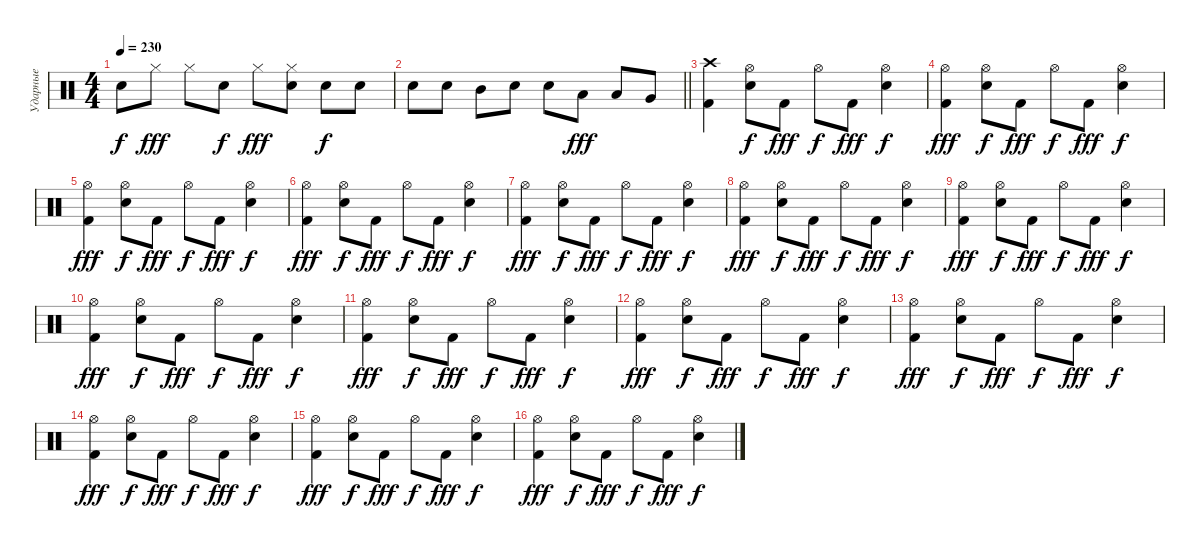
\track ("Ударные" "Ударные") {instrument percussion}
\staff
\articulation defaults
\ts (4 4)
\tempo 230
\clef neutral
\ks c "Snare (hit) 2".8{dy f} "Hi-Hat (closed)".8{dy fff} "Hi-Hat (closed)".8 "Snare (hit) 2".8{dy f} "Hi-Hat (closed)".8{dy fff}
("Snare (hit) 2" "Hi-Hat (closed)").8 "Snare (hit) 2".8{dy f} "Snare (hit) 2".8 |
\barLineRight lightlight "Snare (hit) 2".8 "Snare (hit) 2".8 "Mid Tom (hit)".8 "Snare (hit) 2".8 "Snare (hit) 2".8 "Low Tom (hit)".8{dy fff} "Low Tom (hit)".8 "Very Low Tom (hit)".8
|
("Kick (hit) 2" "Crash high (hit)").4 ("Snare (hit) 2" "Hi-Hat (open)").8{dy f} "Kick (hit) 2".8{dy fff} "Hi-Hat (open)".8{dy f} "Kick (hit) 2".8{dy fff} ("Snare (hit) 2" "Hi-Hat (open)").4{dy f} |
("Kick (hit) 2" "Hi-Hat (open)").4{dy fff} ("Snare (hit) 2" "Hi-Hat (open)").8{dy f} "Kick (hit) 2".8{dy fff} "Hi-Hat (open)".8{dy f} "Kick (hit) 2".8{dy fff} ("Snare (hit) 2" "Hi-Hat (open)").4{dy f} |
("Kick (hit) 2" "Hi-Hat (open)").4{dy fff} ("Snare (hit) 2" "Hi-Hat (open)").8{dy f} "Kick (hit) 2".8{dy fff} "Hi-Hat (open)".8{dy f} "Kick (hit) 2".8{dy fff} ("Snare (hit) 2" "Hi-Hat (open)").4{dy f} |
("Kick (hit) 2" "Hi-Hat (open)").4{dy fff} ("Snare (hit) 2" "Hi-Hat (open)").8{dy f} "Kick (hit) 2".8{dy fff} "Hi-Hat (open)".8{dy f} "Kick (hit) 2".8{dy fff} ("Snare (hit) 2" "Hi-Hat (open)").4{dy f} |
("Kick (hit) 2" "Hi-Hat (open)").4{dy fff} ("Snare (hit) 2" "Hi-Hat (open)").8{dy f} "Kick (hit) 2".8{dy fff} "Hi-Hat (open)".8{dy f} "Kick (hit) 2".8{dy fff} ("Snare (hit) 2" "Hi-Hat (open)").4{dy f} |
("Kick (hit) 2" "Hi-Hat (open)").4{dy fff} ("Snare (hit) 2" "Hi-Hat (open)").8{dy f} "Kick (hit) 2".8{dy fff} "Hi-Hat (open)".8{dy f} "Kick (hit) 2".8{dy fff} ("Snare (hit) 2" "Hi-Hat (open)").4{dy f} |
("Kick (hit) 2" "Hi-Hat (open)").4{dy fff} ("Snare (hit) 2" "Hi-Hat (open)").8{dy f} "Kick (hit) 2".8{dy fff} "Hi-Hat (open)".8{dy f} "Kick (hit) 2".8{dy fff} ("Snare (hit) 2" "Hi-Hat (open)").4{dy f} |
("Kick (hit) 2" "Hi-Hat (open)").4{dy fff} ("Snare (hit) 2" "Hi-Hat (open)").8{dy f} "Kick (hit) 2".8{dy fff} "Hi-Hat (open)".8{dy f} "Kick (hit) 2".8{dy fff} ("Snare (hit) 2" "Hi-Hat (open)").4{dy f} |
("Kick (hit) 2" "Hi-Hat (open)").4{dy fff} ("Snare (hit) 2" "Hi-Hat (open)").8{dy f} "Kick (hit) 2".8{dy fff} "Hi-Hat (open)".8{dy f} "Kick (hit) 2".8{dy fff} ("Snare (hit) 2" "Hi-Hat (open)").4{dy f} |
("Kick (hit) 2" "Hi-Hat (open)").4{dy fff} ("Snare (hit) 2" "Hi-Hat (open)").8{dy f} "Kick (hit) 2".8{dy fff} "Hi-Hat (open)".8{dy f} "Kick (hit) 2".8{dy fff} ("Snare (hit) 2" "Hi-Hat (open)").4{dy f} |
("Kick (hit) 2" "Hi-Hat (open)").4{dy fff} ("Snare (hit) 2" "Hi-Hat (open)").8{dy f} "Kick (hit) 2".8{dy fff} "Hi-Hat (open)".8{dy f} "Kick (hit) 2".8{dy fff} ("Snare (hit) 2" "Hi-Hat (open)").4{dy f} |
("Kick (hit) 2" "Hi-Hat (open)").4{dy fff} ("Snare (hit) 2" "Hi-Hat (open)").8{dy f} "Kick (hit) 2".8{dy fff} "Hi-Hat (open)".8{dy f} "Kick (hit) 2".8{dy fff} ("Snare (hit) 2" "Hi-Hat (open)").4{dy f} |
("Kick (hit) 2" "Hi-Hat (open)").4{dy fff} ("Snare (hit) 2" "Hi-Hat (open)").8{dy f} "Kick (hit) 2".8{dy fff} "Hi-Hat (open)".8{dy f} "Kick (hit) 2".8{dy fff} ("Snare (hit) 2" "Hi-Hat (open)").4{dy f} |
("Kick (hit) 2" "Hi-Hat (open)").4{dy fff} ("Snare (hit) 2" "Hi-Hat (open)").8{dy f} "Kick (hit) 2".8{dy fff} "Hi-Hat (open)".8{dy f} "Kick (hit) 2".8{dy fff} ("Snare (hit) 2" "Hi-Hat (open)").4{dy f}
